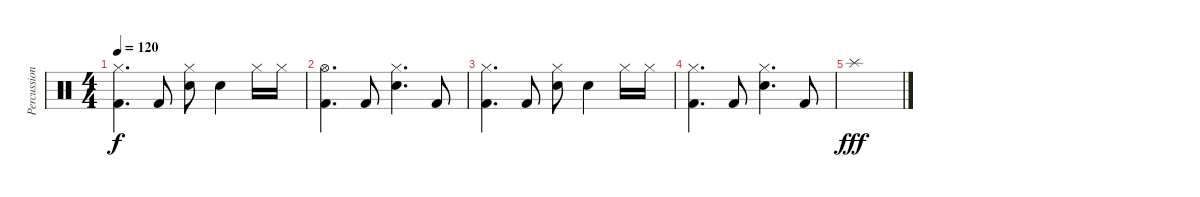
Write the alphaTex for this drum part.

\track ("Percussions" "Percussion") {instrument percussion}
\staff {score}
\articulation defaults
\ts (4 4)
\tempo 120
\clef neutral
\ks c
("Hi-Hat (closed)" "Kick (hit) 2").4{d dy f} "Kick (hit) 2".8 ("Hi-Hat (closed)" "Snare (hit) 2").8 "Snare (hit) 2".4 "Hi-Hat (closed)".16 "Hi-Hat (closed)".16 |
("Hi-Hat (open)" "Kick (hit) 2").4{d} "Kick (hit) 2".8 ("Hi-Hat (closed)" "Snare (hit) 2").4{d} "Kick (hit) 2".8 |
("Hi-Hat (closed)" "Kick (hit) 2").4{d} "Kick (hit) 2".8 ("Hi-Hat (closed)" "Snare (hit) 2").8 "Snare (hit) 2".4 "Hi-Hat (closed)".16 "Hi-Hat (closed)".16 |
("Hi-Hat (closed)" "Kick (hit) 2").4{d} "Kick (hit) 2".8 ("Hi-Hat (closed)" "Snare (hit) 2").4{d} "Kick (hit) 2".8 |
"Splash (hit)".1{dy fff}
